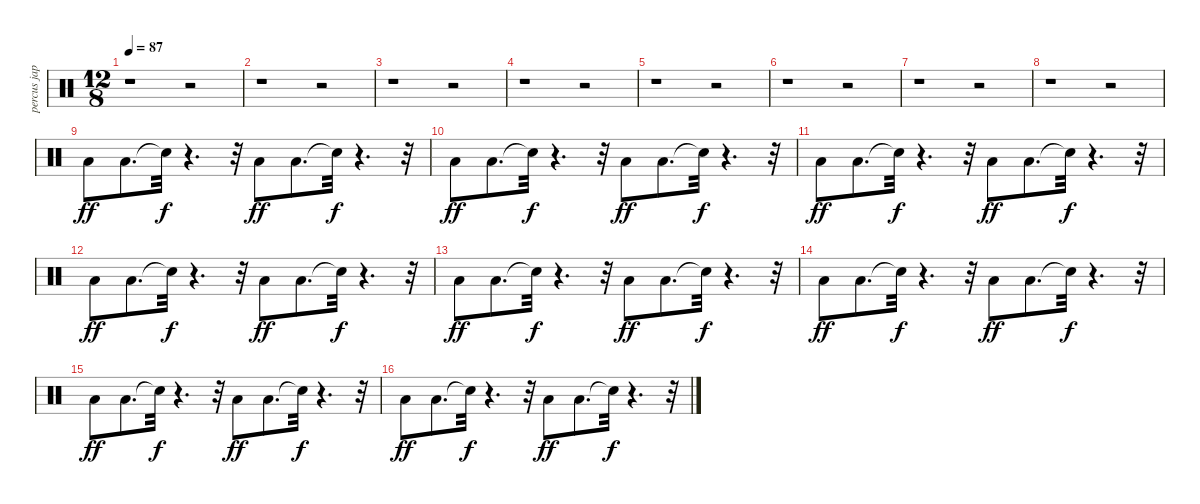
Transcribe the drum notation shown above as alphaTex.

\track ("percus jap" "percus jap") {instrument percussion}
\staff {score}
\articulation defaults
\ts (12 8)
\tempo 87
\clef neutral
\ks c
r.1{dy f} r.2 |
r.1 r.2 |
r.1 r.2 |
r.1 r.2 |
r.1 r.2 |
r.1 r.2 |
r.1 r.2 |
r.1 r.2 |
"Low Tom (hit)".8{dy ff} "Low Tom (hit)".8{d} "Snare (hit)"{t}.32{dy f} r.4{d} r.32 "Low Tom (hit)".8{dy ff} "Low Tom (hit)".8{d} "Snare (hit)"{t}.32{dy f} r.4{d} r.32 |
"Low Tom (hit)".8{dy ff} "Low Tom (hit)".8{d} "Snare (hit)"{t}.32{dy f} r.4{d} r.32 "Low Tom (hit)".8{dy ff} "Low Tom (hit)".8{d} "Snare (hit)"{t}.32{dy f} r.4{d} r.32 |
"Low Tom (hit)".8{dy ff} "Low Tom (hit)".8{d} "Snare (hit)"{t}.32{dy f} r.4{d} r.32 "Low Tom (hit)".8{dy ff} "Low Tom (hit)".8{d} "Snare (hit)"{t}.32{dy f} r.4{d} r.32 |
"Low Tom (hit)".8{dy ff} "Low Tom (hit)".8{d} "Snare (hit)"{t}.32{dy f} r.4{d} r.32 "Low Tom (hit)".8{dy ff} "Low Tom (hit)".8{d} "Snare (hit)"{t}.32{dy f} r.4{d} r.32 |
"Low Tom (hit)".8{dy ff} "Low Tom (hit)".8{d} "Snare (hit)"{t}.32{dy f} r.4{d} r.32 "Low Tom (hit)".8{dy ff} "Low Tom (hit)".8{d} "Snare (hit)"{t}.32{dy f} r.4{d} r.32 |
"Low Tom (hit)".8{dy ff} "Low Tom (hit)".8{d} "Snare (hit)"{t}.32{dy f} r.4{d} r.32 "Low Tom (hit)".8{dy ff} "Low Tom (hit)".8{d} "Snare (hit)"{t}.32{dy f} r.4{d} r.32 |
"Low Tom (hit)".8{dy ff} "Low Tom (hit)".8{d} "Snare (hit)"{t}.32{dy f} r.4{d} r.32 "Low Tom (hit)".8{dy ff} "Low Tom (hit)".8{d} "Snare (hit)"{t}.32{dy f} r.4{d} r.32 |
"Low Tom (hit)".8{dy ff} "Low Tom (hit)".8{d} "Snare (hit)"{t}.32{dy f} r.4{d} r.32 "Low Tom (hit)".8{dy ff} "Low Tom (hit)".8{d} "Snare (hit)"{t}.32{dy f} r.4{d} r.32
